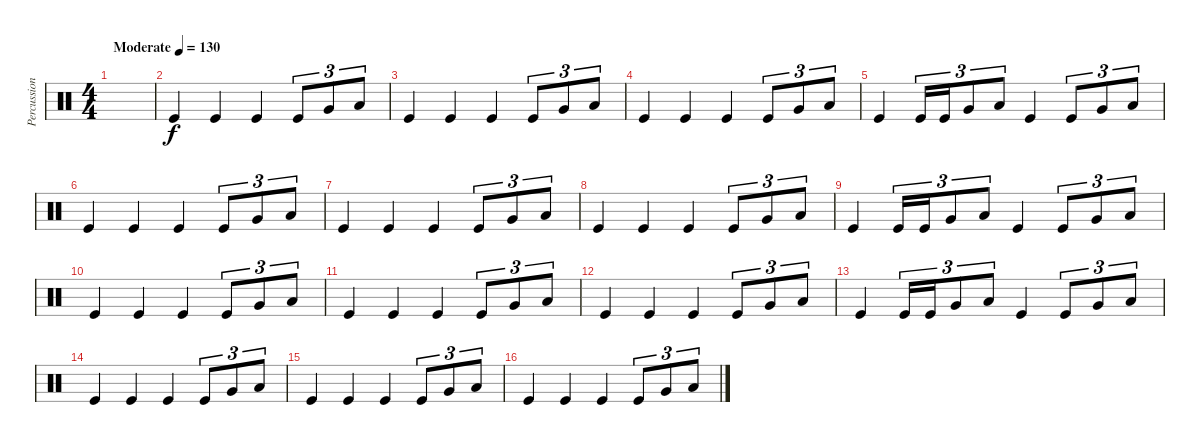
\track ("Percussioni" "Percussion") {instrument percussion}
\staff {score}
\articulation defaults
\ts (4 4)
\tempo (130 "Moderate")
\clef neutral
\ks c
|
"Kick (hit)".4 "Kick (hit)".4 "Kick (hit)".4 "Kick (hit)".8{tu (3 2)} "Very Low Tom (hit)".8{tu (3 2) balance 11} "Low Floor Tom (hit)".8{tu (3 2) balance 8} |
"Kick (hit)".4 "Kick (hit)".4 "Kick (hit)".4 "Kick (hit)".8{tu (3 2)} "Very Low Tom (hit)".8{tu (3 2) balance 11} "Low Floor Tom (hit)".8{tu (3 2) balance 8} |
"Kick (hit)".4 "Kick (hit)".4 "Kick (hit)".4 "Kick (hit)".8{tu (3 2)} "Very Low Tom (hit)".8{tu (3 2) balance 11} "Low Floor Tom (hit)".8{tu (3 2) balance 8} |
"Kick (hit)".4 "Kick (hit)".16{tu (3 2)} "Kick (hit)".16{tu (3 2)} "Very Low Tom (hit)".8{tu (3 2) balance 11} "Low Floor Tom (hit)".8{tu (3 2) balance 8} "Kick (hit)".4 "Kick (hit)".8{tu (3 2)} "Very Low Tom (hit)".8{tu (3 2) balance 11} "Low Floor Tom (hit)".8{tu (3 2) balance 8} |
"Kick (hit)".4 "Kick (hit)".4 "Kick (hit)".4 "Kick (hit)".8{tu (3 2)} "Very Low Tom (hit)".8{tu (3 2) balance 11} "Low Floor Tom (hit)".8{tu (3 2) balance 8} |
"Kick (hit)".4 "Kick (hit)".4 "Kick (hit)".4 "Kick (hit)".8{tu (3 2)} "Very Low Tom (hit)".8{tu (3 2) balance 11} "Low Floor Tom (hit)".8{tu (3 2) balance 8} |
"Kick (hit)".4 "Kick (hit)".4 "Kick (hit)".4 "Kick (hit)".8{tu (3 2)} "Very Low Tom (hit)".8{tu (3 2) balance 11} "Low Floor Tom (hit)".8{tu (3 2) balance 8} |
"Kick (hit)".4 "Kick (hit)".16{tu (3 2)} "Kick (hit)".16{tu (3 2)} "Very Low Tom (hit)".8{tu (3 2) balance 11} "Low Floor Tom (hit)".8{tu (3 2) balance 8} "Kick (hit)".4 "Kick (hit)".8{tu (3 2)} "Very Low Tom (hit)".8{tu (3 2) balance 11} "Low Floor Tom (hit)".8{tu (3 2) balance 8} |
"Kick (hit)".4 "Kick (hit)".4 "Kick (hit)".4 "Kick (hit)".8{tu (3 2)} "Very Low Tom (hit)".8{tu (3 2) balance 11} "Low Floor Tom (hit)".8{tu (3 2) balance 8} |
"Kick (hit)".4 "Kick (hit)".4 "Kick (hit)".4 "Kick (hit)".8{tu (3 2)} "Very Low Tom (hit)".8{tu (3 2) balance 11} "Low Floor Tom (hit)".8{tu (3 2) balance 8} |
"Kick (hit)".4 "Kick (hit)".4 "Kick (hit)".4 "Kick (hit)".8{tu (3 2)} "Very Low Tom (hit)".8{tu (3 2) balance 11} "Low Floor Tom (hit)".8{tu (3 2) balance 8} |
"Kick (hit)".4 "Kick (hit)".16{tu (3 2)} "Kick (hit)".16{tu (3 2)} "Very Low Tom (hit)".8{tu (3 2) balance 11} "Low Floor Tom (hit)".8{tu (3 2) balance 8} "Kick (hit)".4 "Kick (hit)".8{tu (3 2)} "Very Low Tom (hit)".8{tu (3 2) balance 11} "Low Floor Tom (hit)".8{tu (3 2) balance 8} |
"Kick (hit)".4 "Kick (hit)".4 "Kick (hit)".4 "Kick (hit)".8{tu (3 2)} "Very Low Tom (hit)".8{tu (3 2) balance 11} "Low Floor Tom (hit)".8{tu (3 2) balance 8} |
"Kick (hit)".4 "Kick (hit)".4 "Kick (hit)".4 "Kick (hit)".8{tu (3 2)} "Very Low Tom (hit)".8{tu (3 2) balance 11} "Low Floor Tom (hit)".8{tu (3 2) balance 8} |
"Kick (hit)".4 "Kick (hit)".4 "Kick (hit)".4 "Kick (hit)".8{tu (3 2)} "Very Low Tom (hit)".8{tu (3 2) balance 11} "Low Floor Tom (hit)".8{tu (3 2) balance 8}
